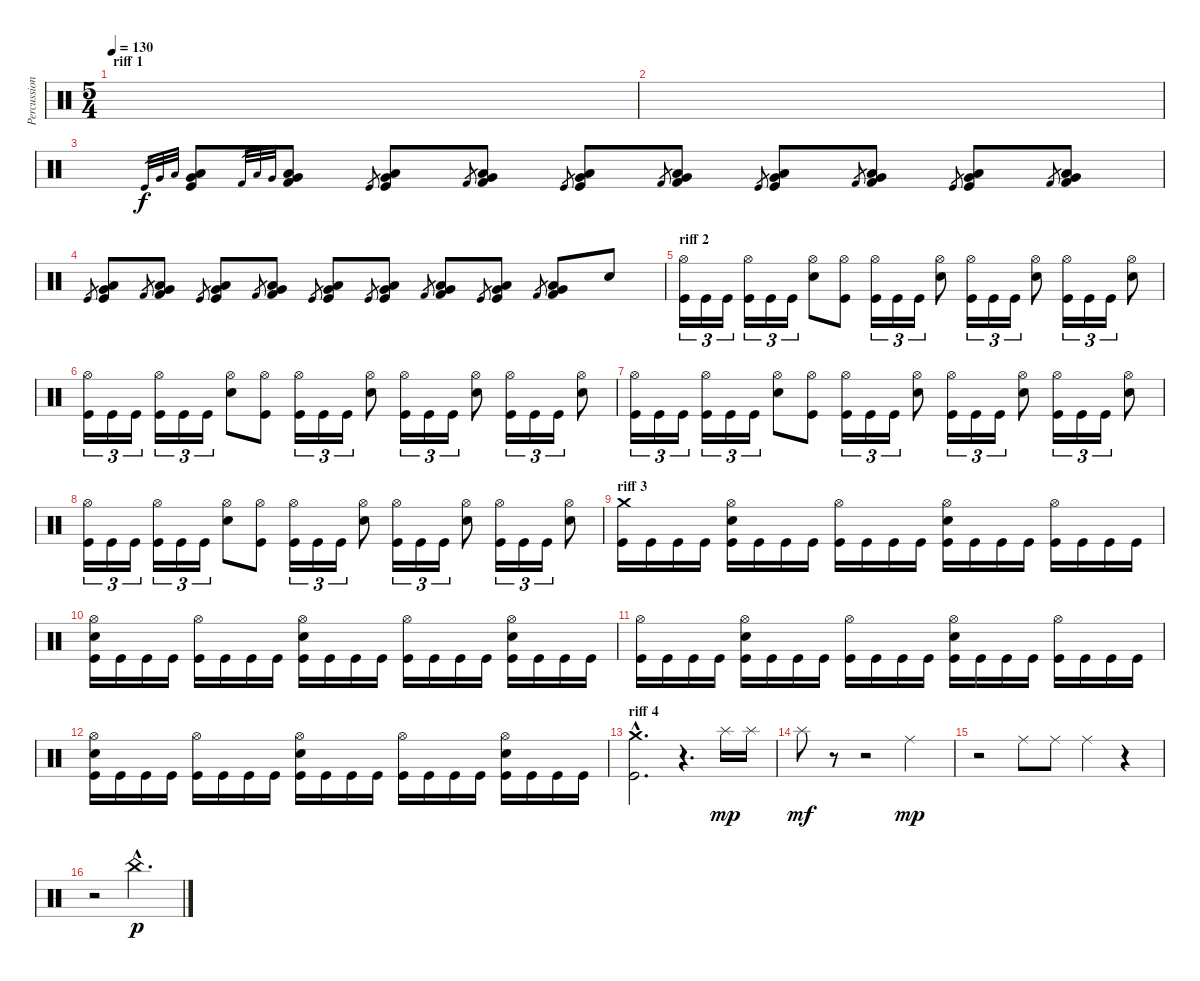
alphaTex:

\track ("Percussion" "Percussion") {instrument percussion}
\staff {score}
\articulation defaults
\ts (5 4)
\section ("" "riff 1")
\tempo 130
\clef neutral
\ks c
|
|
"Kick (hit)".32{gr} "Very Low Tom (hit)".32{gr} "Low Tom (hit)".32{gr} ("Kick (hit)" "Very Low Tom (hit)" "Low Tom (hit)").8{volume 13} "Kick (hit) 2".32{gr} "Low Floor Tom (hit)".32{gr} "Very Low Tom (hit)".32{gr} ("Kick (hit) 2" "Low Floor Tom (hit)" "Very Low Tom (hit)").8 "Kick (hit)".8{gr} ("Kick (hit)" "Very Low Tom (hit)" "Low Tom (hit)").8 "Kick (hit) 2".8{gr} ("Kick (hit) 2" "Low Floor Tom (hit)" "Very Low Tom (hit)").8 "Kick (hit)".8{gr} ("Kick (hit)" "Very Low Tom (hit)" "Low Tom (hit)").8 "Kick (hit) 2".8{gr} ("Kick (hit) 2" "Low Floor Tom (hit)" "Very Low Tom (hit)").8 "Kick (hit)".8{gr} ("Kick (hit)" "Very Low Tom (hit)" "Low Tom (hit)").8 "Kick (hit) 2".8{gr} ("Kick (hit) 2" "Low Floor Tom (hit)" "Very Low Tom (hit)").8 "Kick (hit)".8{gr} ("Kick (hit)" "Very Low Tom (hit)" "Low Tom (hit)").8 "Kick (hit) 2".8{gr} ("Kick (hit) 2" "Low Floor Tom (hit)" "Very Low Tom (hit)").8 |
"Kick (hit)".8{gr} ("Kick (hit)" "Very Low Tom (hit)" "Low Tom (hit)").8 "Kick (hit) 2".8{gr} ("Kick (hit) 2" "Low Floor Tom (hit)" "Very Low Tom (hit)").8 "Kick (hit)".8{gr} ("Kick (hit)" "Very Low Tom (hit)" "Low Tom (hit)").8 "Kick (hit) 2".8{gr} ("Kick (hit) 2" "Low Floor Tom (hit)" "Very Low Tom (hit)").8 "Kick (hit)".8{gr} ("Kick (hit)" "Very Low Tom (hit)" "Low Tom (hit)").8 "Kick (hit)".8{gr} ("Kick (hit)" "Very Low Tom (hit)" "Low Tom (hit)").8 "Kick (hit) 2".8{gr} ("Kick (hit) 2" "Low Floor Tom (hit)" "Very Low Tom (hit)").8 "Kick (hit)".8{gr} ("Kick (hit)" "Very Low Tom (hit)" "Low Tom (hit)").8 "Kick (hit) 2".8{gr} ("Kick (hit) 2" "Low Floor Tom (hit)" "Very Low Tom (hit)").8 "Electric Snare (hit)".8 |
\section ("" "riff 2")
("Kick (hit)" "Hi-Hat (open)").16{tu (3 2)} "Kick (hit)".16{tu (3 2)} "Kick (hit)".16{tu (3 2)} ("Kick (hit)" "Hi-Hat (open)").16{tu (3 2)} "Kick (hit)".16{tu (3 2)} "Kick (hit)".16{tu (3 2)} ("Hi-Hat (open)" "Electric Snare (hit)").8 ("Kick (hit)" "Hi-Hat (open)").8 ("Kick (hit)" "Hi-Hat (open)").16{tu (3 2)} "Kick (hit)".16{tu (3 2)} "Kick (hit)".16{tu (3 2)} ("Hi-Hat (open)" "Electric Snare (hit)").8 ("Kick (hit)" "Hi-Hat (open)").16{tu (3 2)} "Kick (hit)".16{tu (3 2)} "Kick (hit)".16{tu (3 2)} ("Hi-Hat (open)" "Electric Snare (hit)").8 ("Kick (hit)" "Hi-Hat (open)").16{tu (3 2)} "Kick (hit)".16{tu (3 2)} "Kick (hit)".16{tu (3 2)} ("Hi-Hat (open)" "Electric Snare (hit)").8 |
("Kick (hit)" "Hi-Hat (open)").16{tu (3 2)} "Kick (hit)".16{tu (3 2)} "Kick (hit)".16{tu (3 2)} ("Kick (hit)" "Hi-Hat (open)").16{tu (3 2)} "Kick (hit)".16{tu (3 2)} "Kick (hit)".16{tu (3 2)} ("Hi-Hat (open)" "Electric Snare (hit)").8 ("Kick (hit)" "Hi-Hat (open)").8 ("Kick (hit)" "Hi-Hat (open)").16{tu (3 2)} "Kick (hit)".16{tu (3 2)} "Kick (hit)".16{tu (3 2)} ("Hi-Hat (open)" "Electric Snare (hit)").8 ("Kick (hit)" "Hi-Hat (open)").16{tu (3 2)} "Kick (hit)".16{tu (3 2)} "Kick (hit)".16{tu (3 2)} ("Hi-Hat (open)" "Electric Snare (hit)").8 ("Kick (hit)" "Hi-Hat (open)").16{tu (3 2)} "Kick (hit)".16{tu (3 2)} "Kick (hit)".16{tu (3 2)} ("Hi-Hat (open)" "Electric Snare (hit)").8 |
("Kick (hit)" "Hi-Hat (open)").16{tu (3 2)} "Kick (hit)".16{tu (3 2)} "Kick (hit)".16{tu (3 2)} ("Kick (hit)" "Hi-Hat (open)").16{tu (3 2)} "Kick (hit)".16{tu (3 2)} "Kick (hit)".16{tu (3 2)} ("Hi-Hat (open)" "Electric Snare (hit)").8 ("Kick (hit)" "Hi-Hat (open)").8 ("Kick (hit)" "Hi-Hat (open)").16{tu (3 2)} "Kick (hit)".16{tu (3 2)} "Kick (hit)".16{tu (3 2)} ("Hi-Hat (open)" "Electric Snare (hit)").8 ("Kick (hit)" "Hi-Hat (open)").16{tu (3 2)} "Kick (hit)".16{tu (3 2)} "Kick (hit)".16{tu (3 2)} ("Hi-Hat (open)" "Electric Snare (hit)").8 ("Kick (hit)" "Hi-Hat (open)").16{tu (3 2)} "Kick (hit)".16{tu (3 2)} "Kick (hit)".16{tu (3 2)} ("Hi-Hat (open)" "Electric Snare (hit)").8 |
("Kick (hit)" "Hi-Hat (open)").16{tu (3 2)} "Kick (hit)".16{tu (3 2)} "Kick (hit)".16{tu (3 2)} ("Kick (hit)" "Hi-Hat (open)").16{tu (3 2)} "Kick (hit)".16{tu (3 2)} "Kick (hit)".16{tu (3 2)} ("Hi-Hat (open)" "Electric Snare (hit)").8 ("Kick (hit)" "Hi-Hat (open)").8 ("Kick (hit)" "Hi-Hat (open)").16{tu (3 2)} "Kick (hit)".16{tu (3 2)} "Kick (hit)".16{tu (3 2)} ("Hi-Hat (open)" "Electric Snare (hit)").8 ("Kick (hit)" "Hi-Hat (open)").16{tu (3 2)} "Kick (hit)".16{tu (3 2)} "Kick (hit)".16{tu (3 2)} ("Hi-Hat (open)" "Electric Snare (hit)").8 ("Kick (hit)" "Hi-Hat (open)").16{tu (3 2)} "Kick (hit)".16{tu (3 2)} "Kick (hit)".16{tu (3 2)} ("Hi-Hat (open)" "Electric Snare (hit)").8 |
\section ("" "riff 3")
("Kick (hit)" "Crash medium (hit)").16 "Kick (hit)".16 "Kick (hit)".16 "Kick (hit)".16 ("Kick (hit)" "Hi-Hat (open)" "Electric Snare (hit)").16 "Kick (hit)".16 "Kick (hit)".16 "Kick (hit)".16 ("Kick (hit)" "Hi-Hat (open)").16 "Kick (hit)".16 "Kick (hit)".16 "Kick (hit)".16 ("Kick (hit)" "Hi-Hat (open)" "Electric Snare (hit)").16 "Kick (hit)".16 "Kick (hit)".16 "Kick (hit)".16 ("Kick (hit)" "Hi-Hat (open)").16 "Kick (hit)".16 "Kick (hit)".16 "Kick (hit)".16 |
("Kick (hit)" "Hi-Hat (open)" "Electric Snare (hit)").16 "Kick (hit)".16 "Kick (hit)".16 "Kick (hit)".16 ("Kick (hit)" "Hi-Hat (open)").16 "Kick (hit)".16 "Kick (hit)".16 "Kick (hit)".16 ("Kick (hit)" "Hi-Hat (open)" "Electric Snare (hit)").16 "Kick (hit)".16 "Kick (hit)".16 "Kick (hit)".16 ("Kick (hit)" "Hi-Hat (open)").16 "Kick (hit)".16 "Kick (hit)".16 "Kick (hit)".16 ("Kick (hit)" "Hi-Hat (open)" "Electric Snare (hit)").16 "Kick (hit)".16 "Kick (hit)".16 "Kick (hit)".16 |
("Kick (hit)" "Hi-Hat (open)").16 "Kick (hit)".16 "Kick (hit)".16 "Kick (hit)".16 ("Kick (hit)" "Hi-Hat (open)" "Electric Snare (hit)").16 "Kick (hit)".16 "Kick (hit)".16 "Kick (hit)".16 ("Kick (hit)" "Hi-Hat (open)").16 "Kick (hit)".16 "Kick (hit)".16 "Kick (hit)".16 ("Kick (hit)" "Hi-Hat (open)" "Electric Snare (hit)").16 "Kick (hit)".16 "Kick (hit)".16 "Kick (hit)".16 ("Kick (hit)" "Hi-Hat (open)").16 "Kick (hit)".16 "Kick (hit)".16 "Kick (hit)".16 |
("Kick (hit)" "Hi-Hat (open)" "Electric Snare (hit)").16 "Kick (hit)".16 "Kick (hit)".16 "Kick (hit)".16 ("Kick (hit)" "Hi-Hat (open)").16 "Kick (hit)".16 "Kick (hit)".16 "Kick (hit)".16 ("Kick (hit)" "Hi-Hat (open)" "Electric Snare (hit)").16 "Kick (hit)".16 "Kick (hit)".16 "Kick (hit)".16 ("Kick (hit)" "Hi-Hat (open)").16 "Kick (hit)".16 "Kick (hit)".16 "Kick (hit)".16 ("Kick (hit)" "Hi-Hat (open)" "Electric Snare (hit)").16 "Kick (hit)".16 "Kick (hit)".16 "Kick (hit)".16 |
\section ("" "riff 4")
("Kick (hit)"{hac} "Crash medium (hit)"{hac}).2{d} r.4{d} "Splash (hit)".16{dy mp} "Splash (hit)".16 |
"Splash (hit)".8{dy mf} r.8 r.2 "Ride (middle)".2{dy mp} |
r.2 "Ride (middle)".8 "Ride (middle)".8 "Ride (middle)".4 r.4 |
r.2 "China (hit)"{hac}.2{d dy p}
